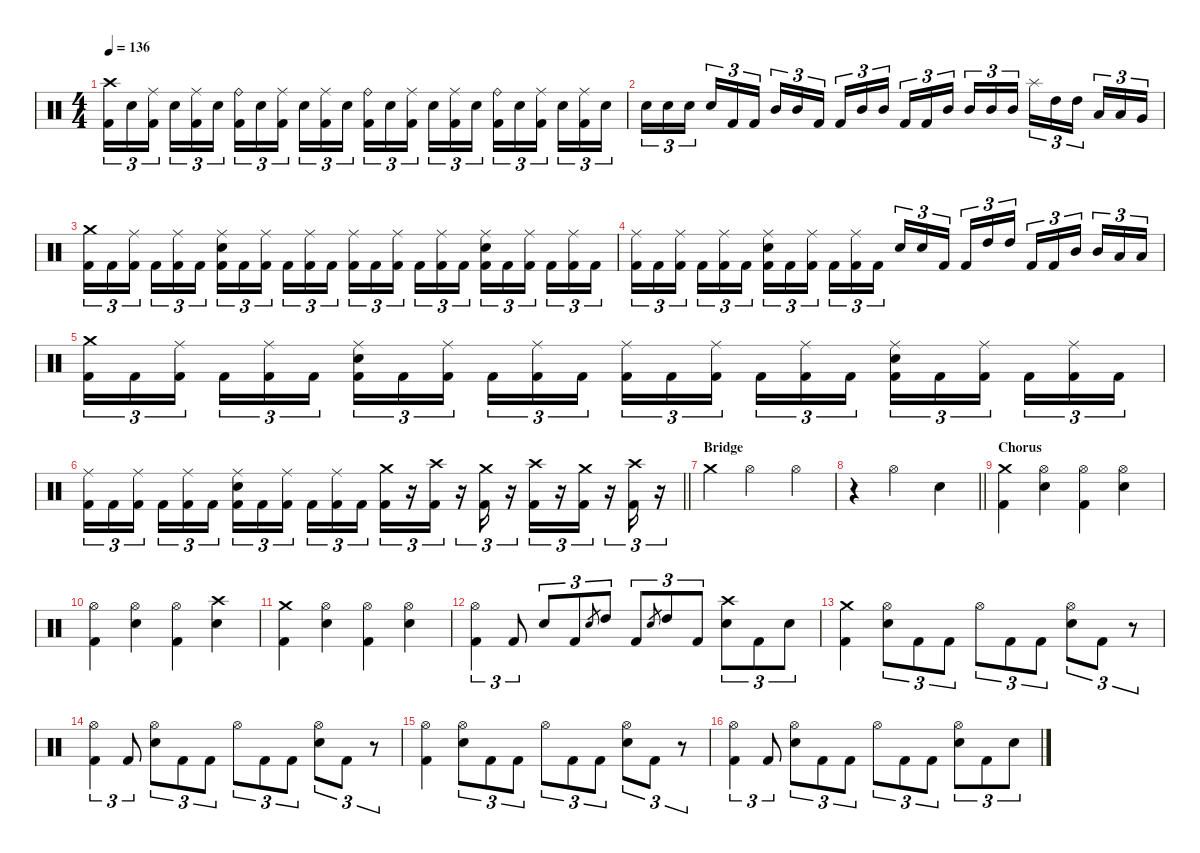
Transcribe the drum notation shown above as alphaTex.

\defaultSystemsLayout 4
\hideDynamics
\bracketExtendMode nobrackets
\singleTrackTrackNamePolicy hidden
\multiTrackTrackNamePolicy hidden
\firstSystemTrackNameMode fullname
\firstSystemTrackNameOrientation horizontal
\otherSystemsTrackNameOrientation horizontal
\track ("Drums" "drm.") {instrument percussion}
\staff {score}
\articulation defaults
\ts (4 4)
\tempo 136
\clef neutral
\ks c
("Crash high (hit)" "Kick (hit) 2").16{tu (3 2) dy f beam Down} "Snare (hit) 2".16{tu (3 2) beam Down} ("Ride (middle)" "Kick (hit) 2").16{tu (3 2) beam Down} "Snare (hit) 2".16{tu (3 2) beam Down} ("Ride (middle)" "Kick (hit) 2").16{tu (3 2) beam Down} "Snare (hit) 2".16{tu (3 2) beam Down} ("Ride (bell)" "Kick (hit) 2").16{tu (3 2) beam Down} "Snare (hit) 2".16{tu (3 2) beam Down} ("Ride (middle)" "Kick (hit) 2").16{tu (3 2) beam Down} "Snare (hit) 2".16{tu (3 2) beam Down} ("Ride (middle)" "Kick (hit) 2").16{tu (3 2) beam Down} "Snare (hit) 2".16{tu (3 2) beam Down} ("Ride (bell)" "Kick (hit) 2").16{tu (3 2) beam Down} "Snare (hit) 2".16{tu (3 2) beam Down} ("Ride (middle)" "Kick (hit) 2").16{tu (3 2) beam Down} "Snare (hit) 2".16{tu (3 2) beam Down} ("Ride (middle)" "Kick (hit) 2").16{tu (3 2) beam Down} "Snare (hit) 2".16{tu (3 2) beam Down} ("Ride (bell)" "Kick (hit) 2").16{tu (3 2) beam Down} "Snare (hit) 2".16{tu (3 2) beam Down} ("Ride (middle)" "Kick (hit) 2").16{tu (3 2) beam Down} "Snare (hit) 2".16{tu (3 2) beam Down} ("Ride (middle)" "Kick (hit) 2").16{tu (3 2) beam Down} "Snare (hit) 2".16{tu (3 2) beam Down} |
"Snare (hit) 2".16{tu (3 2) beam Down} "Snare (hit) 2".16{tu (3 2) beam Down} "Snare (hit) 2".16{tu (3 2) beam Down} "Snare (hit) 2".16{tu (3 2) beam Up} "Kick (hit) 2".16{tu (3 2) beam Up} "Kick (hit) 2".16{tu (3 2) beam Up} "Mid Tom (hit)".16{tu (3 2) beam Up} "Mid Tom (hit)".16{tu (3 2) beam Up} "Kick (hit) 2".16{tu (3 2) beam Up} "Kick (hit) 2".16{tu (3 2) beam Up} "Mid Tom (hit)".16{tu (3 2) beam Up} "Mid Tom (hit)".16{tu (3 2) beam Up} "Kick (hit) 2".16{tu (3 2) beam Up} "Kick (hit) 2".16{tu (3 2) beam Up} "Mid Tom (hit)".16{tu (3 2) beam Up} "Mid Tom (hit)".16{tu (3 2) beam Up} "Mid Tom (hit)".16{tu (3 2) beam Up} "Mid Tom (hit)".16{tu (3 2) beam Up} "Splash (hit)".16{tu (3 2) beam Down} "High Tom (hit)".16{tu (3 2) beam Down} "High Tom (hit)".16{tu (3 2) beam Down} "Low Tom (hit)".16{tu (3 2) beam Up} "Low Tom (hit)".16{tu (3 2) beam Up} "Very Low Tom (hit)".16{tu (3 2) beam Up} |
("Crash medium (hit)" "Kick (hit) 2").16{tu (3 2) beam Down} "Kick (hit) 2".16{tu (3 2) beam Down} ("Ride (middle)" "Kick (hit) 2").16{tu (3 2) dy mp beam Down} "Kick (hit) 2".16{tu (3 2) dy f beam Down} ("Ride (middle)" "Kick (hit) 2").16{tu (3 2) beam Down} "Kick (hit) 2".16{tu (3 2) beam Down} ("Ride (middle)" "Snare (hit) 2" "Kick (hit) 2").16{tu (3 2) beam Down} "Kick (hit) 2".16{tu (3 2) beam Down} ("Ride (middle)" "Kick (hit) 2").16{tu (3 2) beam Down} "Kick (hit) 2".16{tu (3 2) beam Down} ("Ride (middle)" "Kick (hit) 2").16{tu (3 2) beam Down} "Kick (hit) 2".16{tu (3 2) beam Down} ("Ride (middle)" "Kick (hit) 2").16{tu (3 2) beam Down} "Kick (hit) 2".16{tu (3 2) beam Down} ("Ride (middle)" "Kick (hit) 2").16{tu (3 2) beam Down} "Kick (hit) 2".16{tu (3 2) beam Down} ("Ride (middle)" "Kick (hit) 2").16{tu (3 2) beam Down} "Kick (hit) 2".16{tu (3 2) beam Down} ("Ride (middle)" "Snare (hit) 2" "Kick (hit) 2").16{tu (3 2) beam Down} "Kick (hit) 2".16{tu (3 2) beam Down} ("Ride (middle)" "Kick (hit) 2").16{tu (3 2) beam Down} "Kick (hit) 2".16{tu (3 2) beam Down} ("Ride (middle)" "Kick (hit) 2").16{tu (3 2) beam Down} "Kick (hit) 2".16{tu (3 2) beam Down} |
("Ride (middle)" "Kick (hit) 2").16{tu (3 2) beam Down} "Kick (hit) 2".16{tu (3 2) beam Down} ("Ride (middle)" "Kick (hit) 2").16{tu (3 2) beam Down} "Kick (hit) 2".16{tu (3 2) beam Down} ("Ride (middle)" "Kick (hit) 2").16{tu (3 2) beam Down} "Kick (hit) 2".16{tu (3 2) beam Down} ("Ride (middle)" "Snare (hit) 2" "Kick (hit) 2").16{tu (3 2) beam Down} "Kick (hit) 2".16{tu (3 2) beam Down} ("Ride (middle)" "Kick (hit) 2").16{tu (3 2) beam Down} "Kick (hit) 2".16{tu (3 2) beam Down} ("Ride (middle)" "Kick (hit) 2").16{tu (3 2) beam Down} "Kick (hit) 2".16{tu (3 2) beam Down} "Snare (hit) 2".16{tu (3 2) beam Up} "Snare (hit) 2".16{tu (3 2) beam Up} "Kick (hit) 2".16{tu (3 2) beam Up} "Kick (hit) 2".16{tu (3 2) beam Up} "High Tom (hit)".16{tu (3 2) beam Up} "High Tom (hit)".16{tu (3 2) beam Up} "Kick (hit) 2".16{tu (3 2) beam Up} "Kick (hit) 2".16{tu (3 2) beam Up} "Mid Tom (hit)".16{tu (3 2) beam Up} "Mid Tom (hit)".16{tu (3 2) beam Up} "Low Tom (hit)".16{tu (3 2) beam Up} "Low Tom (hit)".16{tu (3 2) beam Up} |
("Crash medium (hit)" "Kick (hit) 2").16{tu (3 2) beam Down} "Kick (hit) 2".16{tu (3 2) beam Down} ("Ride (middle)" "Kick (hit) 2").16{tu (3 2) dy mp beam Down} "Kick (hit) 2".16{tu (3 2) dy f beam Down} ("Ride (middle)" "Kick (hit) 2").16{tu (3 2) beam Down} "Kick (hit) 2".16{tu (3 2) beam Down} ("Ride (middle)" "Snare (hit) 2" "Kick (hit) 2").16{tu (3 2) beam Down} "Kick (hit) 2".16{tu (3 2) beam Down} ("Ride (middle)" "Kick (hit) 2").16{tu (3 2) beam Down} "Kick (hit) 2".16{tu (3 2) beam Down} ("Ride (middle)" "Kick (hit) 2").16{tu (3 2) beam Down} "Kick (hit) 2".16{tu (3 2) beam Down} ("Ride (middle)" "Kick (hit) 2").16{tu (3 2) beam Down} "Kick (hit) 2".16{tu (3 2) beam Down} ("Ride (middle)" "Kick (hit) 2").16{tu (3 2) beam Down} "Kick (hit) 2".16{tu (3 2) beam Down} ("Ride (middle)" "Kick (hit) 2").16{tu (3 2) beam Down} "Kick (hit) 2".16{tu (3 2) beam Down} ("Ride (middle)" "Snare (hit) 2" "Kick (hit) 2").16{tu (3 2) beam Down} "Kick (hit) 2".16{tu (3 2) beam Down} ("Ride (middle)" "Kick (hit) 2").16{tu (3 2) beam Down} "Kick (hit) 2".16{tu (3 2) beam Down} ("Ride (middle)" "Kick (hit) 2").16{tu (3 2) beam Down} "Kick (hit) 2".16{tu (3 2) beam Down} |
\barLineRight lightlight
("Ride (middle)" "Kick (hit) 2").16{tu (3 2) beam Down} "Kick (hit) 2".16{tu (3 2) beam Down} ("Ride (middle)" "Kick (hit) 2").16{tu (3 2) beam Down} "Kick (hit) 2".16{tu (3 2) beam Down} ("Ride (middle)" "Kick (hit) 2").16{tu (3 2) beam Down} "Kick (hit) 2".16{tu (3 2) beam Down} ("Ride (middle)" "Snare (hit) 2" "Kick (hit) 2").16{tu (3 2) beam Down} "Kick (hit) 2".16{tu (3 2) beam Down} ("Ride (middle)" "Kick (hit) 2").16{tu (3 2) beam Down} "Kick (hit) 2".16{tu (3 2) beam Down} ("Ride (middle)" "Kick (hit) 2").16{tu (3 2) beam Down} "Kick (hit) 2".16{tu (3 2) beam Down} ("Crash medium (hit)" "Kick (hit) 2").16{tu (3 2) beam Down} r.16{tu (3 2) beam Down} ("Crash high (hit)" "Kick (hit) 2").16{tu (3 2) beam Down} r.16{tu (3 2) beam Down} ("Crash medium (hit)" "Kick (hit) 2").16{tu (3 2) beam Down} r.16{tu (3 2) beam Down} ("Crash high (hit)" "Kick (hit) 2").16{tu (3 2) beam Down} r.16{tu (3 2) beam Down} ("Crash medium (hit)" "Kick (hit) 2").16{tu (3 2) beam Down} r.16{tu (3 2) beam Down} ("Crash high (hit)" "Kick (hit) 2").16{tu (3 2) beam Down} r.16{tu (3 2) beam Down} |
\section ("" "Bridge")
"Crash medium (hit)".4{beam Down} "Hi-Hat (open)".2{beam Down} "Hi-Hat (open)".4{beam Down} |
\barLineRight lightlight
r.4{beam Down} "Hi-Hat (open)".2{beam Down} "Snare (hit) 2".4{dy fff beam Down} |
\section ("" "Chorus")
("Crash medium (hit)" "Kick (hit) 2").4{dy f beam Down} ("Hi-Hat (open)" "Snare (hit) 2").4{beam Down} ("Hi-Hat (open)" "Kick (hit) 2").4{beam Down} ("Hi-Hat (open)" "Snare (hit) 2").4{beam Down} |
("Hi-Hat (open)" "Kick (hit) 2").4{beam Down} ("Hi-Hat (open)" "Snare (hit) 2").4{beam Down} ("Hi-Hat (open)" "Kick (hit) 2").4{beam Down} ("Crash high (hit)" "Snare (hit) 2").4{beam Down} |
("Crash medium (hit)" "Kick (hit) 2").4{beam Down} ("Hi-Hat (open)" "Snare (hit) 2").4{beam Down} ("Hi-Hat (open)" "Kick (hit) 2").4{beam Down} ("Hi-Hat (open)" "Snare (hit) 2").4{beam Down} |
("Hi-Hat (open)" "Kick (hit) 2").4{tu (3 2) beam Down} "Kick (hit) 2".8{tu (3 2) beam Up} "Snare (hit) 2".8{tu (3 2) beam Up} "Kick (hit) 2".8{tu (3 2) beam Up} "Electric Snare (hit)".8{gr dy mf beam Up} "High Tom (hit)".8{tu (3 2) dy f beam Up} "Kick (hit) 2".8{tu (3 2) beam Up} "Electric Snare (hit)".8{gr dy mf beam Up} "High Tom (hit)".8{tu (3 2) dy f beam Up} "Kick (hit) 2".8{tu (3 2) beam Up} ("Crash high (hit)" "Snare (hit) 2").8{tu (3 2) beam Down} "Kick (hit) 2".8{tu (3 2) beam Down} "Snare (hit) 2".8{tu (3 2) beam Down} |
("Crash medium (hit)" "Kick (hit) 2").4{beam Down} ("Hi-Hat (open)" "Snare (hit) 2").8{tu (3 2) beam Down} "Kick (hit) 2".8{tu (3 2) beam Down} "Kick (hit) 2".8{tu (3 2) beam Down} "Hi-Hat (open)".8{tu (3 2) beam Down} "Kick (hit) 2".8{tu (3 2) beam Down} "Kick (hit) 2".8{tu (3 2) beam Down} ("Hi-Hat (open)" "Snare (hit) 2").8{tu (3 2) beam Down} "Kick (hit) 2".8{tu (3 2) beam Down} r.8{tu (3 2) beam Down} |
("Hi-Hat (open)" "Kick (hit) 2").4{tu (3 2) beam Down} "Kick (hit) 2".8{tu (3 2) beam Up} ("Hi-Hat (open)" "Snare (hit) 2").8{tu (3 2) beam Down} "Kick (hit) 2".8{tu (3 2) beam Down} "Kick (hit) 2".8{tu (3 2) beam Down} "Hi-Hat (open)".8{tu (3 2) beam Down} "Kick (hit) 2".8{tu (3 2) beam Down} "Kick (hit) 2".8{tu (3 2) beam Down} ("Hi-Hat (open)" "Snare (hit) 2").8{tu (3 2) beam Down} "Kick (hit) 2".8{tu (3 2) beam Down} r.8{tu (3 2) beam Down} |
("Hi-Hat (open)" "Kick (hit) 2").4{beam Down} ("Hi-Hat (open)" "Snare (hit) 2").8{tu (3 2) beam Down} "Kick (hit) 2".8{tu (3 2) beam Down} "Kick (hit) 2".8{tu (3 2) beam Down} "Hi-Hat (open)".8{tu (3 2) beam Down} "Kick (hit) 2".8{tu (3 2) beam Down} "Kick (hit) 2".8{tu (3 2) beam Down} ("Hi-Hat (open)" "Snare (hit) 2").8{tu (3 2) beam Down} "Kick (hit) 2".8{tu (3 2) beam Down} r.8{tu (3 2) beam Down} |
("Hi-Hat (open)" "Kick (hit) 2").4{tu (3 2) beam Down} "Kick (hit) 2".8{tu (3 2) beam Up} ("Hi-Hat (open)" "Snare (hit) 2").8{tu (3 2) beam Down} "Kick (hit) 2".8{tu (3 2) beam Down} "Kick (hit) 2".8{tu (3 2) beam Down} "Hi-Hat (open)".8{tu (3 2) beam Down} "Kick (hit) 2".8{tu (3 2) beam Down} "Kick (hit) 2".8{tu (3 2) beam Down} ("Hi-Hat (open)" "Snare (hit) 2").8{tu (3 2) beam Down} "Kick (hit) 2".8{tu (3 2) beam Down} "Snare (hit) 2".8{tu (3 2) beam Down}
